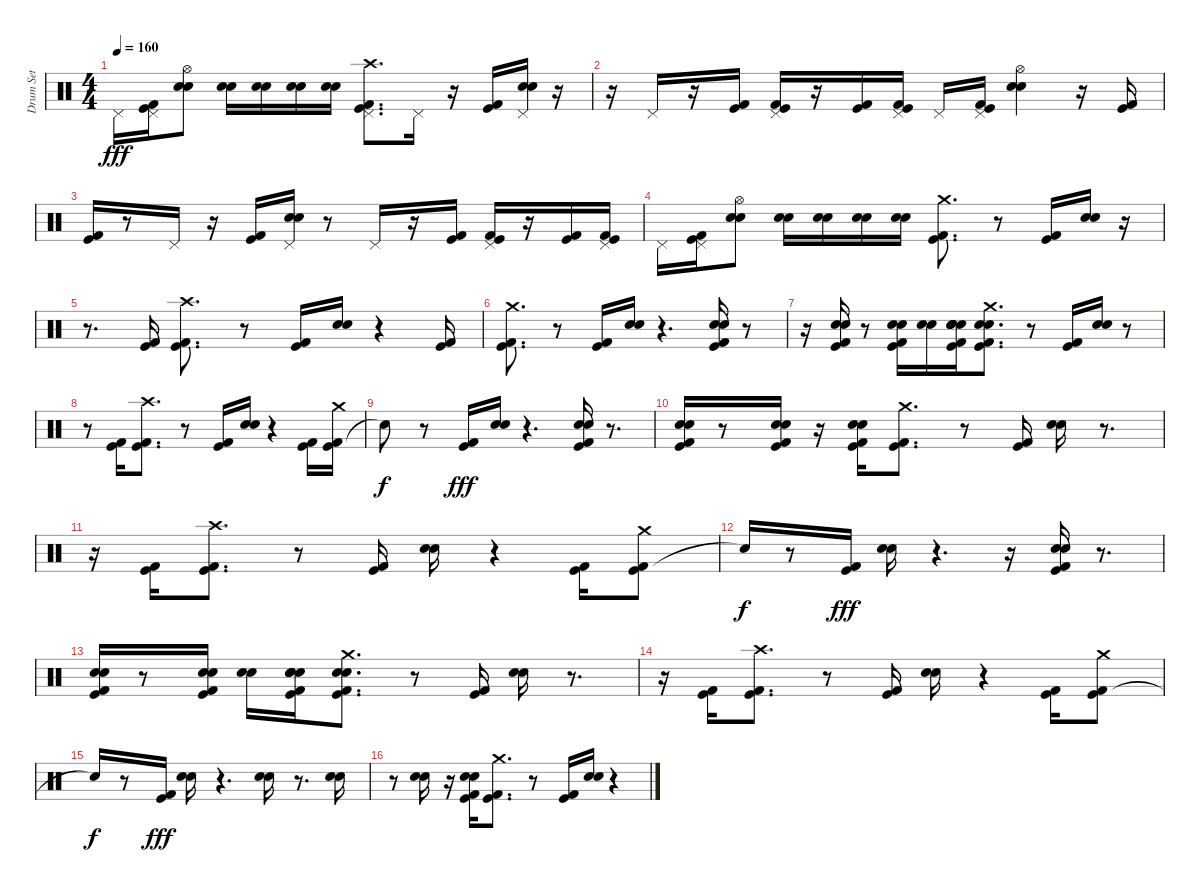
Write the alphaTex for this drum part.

\track ("Drum Set" "Drum Set") {instrument percussion}
\staff {score}
\articulation defaults
\ts (4 4)
\tempo 160
\clef neutral
\ks c "Pedal Hi-Hat (hit)".16{dy fff}
("Kick (hit) 2" "Kick (hit)" "Pedal Hi-Hat (hit)").16 ("Snare (hit) 2" "Electric Snare (hit)" "Hi-Hat (open)").8 ("Snare (hit) 2" "Electric Snare (hit)").16 ("Electric Snare (hit)" "Snare (hit) 2").16 ("Snare (hit) 2" "Electric Snare (hit)").16 ("Electric Snare (hit)" "Snare (hit) 2").16 ("Kick (hit)" "Kick (hit) 2" "Crash high (hit)" "Pedal Hi-Hat (hit)").8{d} "Pedal Hi-Hat (hit)".16 r.16 ("Kick (hit) 2" "Kick (hit)").16 ("Electric Snare (hit)" "Snare (hit) 2" "Pedal Hi-Hat (hit)").16 r.16 |
r.16 "Pedal Hi-Hat (hit)".16 r.16 ("Kick (hit) 2" "Kick (hit)").16 ("Kick (hit)" "Kick (hit) 2" "Pedal Hi-Hat (hit)").16 r.16 ("Kick (hit) 2" "Kick (hit)").16 ("Kick (hit)" "Kick (hit) 2" "Pedal Hi-Hat (hit)").16 "Pedal Hi-Hat (hit)".16 ("Kick (hit)" "Kick (hit) 2" "Pedal Hi-Hat (hit)").16 ("Snare (hit) 2" "Electric Snare (hit)" "Hi-Hat (open)").4 r.16 ("Kick (hit)" "Kick (hit) 2").16 |
("Kick (hit)" "Kick (hit) 2").16 r.8 "Pedal Hi-Hat (hit)".16 r.16 ("Kick (hit) 2" "Kick (hit)").16 ("Snare (hit) 2" "Electric Snare (hit)" "Pedal Hi-Hat (hit)").16 r.8 "Pedal Hi-Hat (hit)".16 r.16 ("Kick (hit)" "Kick (hit) 2").16 ("Kick (hit)" "Kick (hit) 2" "Pedal Hi-Hat (hit)").16 r.16 ("Kick (hit)" "Kick (hit) 2").16 ("Kick (hit)" "Kick (hit) 2" "Pedal Hi-Hat (hit)").16 |
"Pedal Hi-Hat (hit)".16 ("Kick (hit) 2" "Kick (hit)" "Pedal Hi-Hat (hit)").16 ("Snare (hit) 2" "Electric Snare (hit)" "Hi-Hat (open)").8 ("Snare (hit) 2" "Electric Snare (hit)").16 ("Electric Snare (hit)" "Snare (hit) 2").16 ("Snare (hit) 2" "Electric Snare (hit)").16 ("Electric Snare (hit)" "Snare (hit) 2").16 ("Kick (hit) 2" "Kick (hit)" "Crash medium (hit)").8{d} r.8 ("Kick (hit) 2" "Kick (hit)").16 ("Electric Snare (hit)" "Snare (hit) 2").16 r.16 |
r.8{d} ("Kick (hit) 2" "Kick (hit)").16 ("Kick (hit)" "Kick (hit) 2" "Crash high (hit)").8{d} r.8 ("Kick (hit)" "Kick (hit) 2").16 ("Snare (hit) 2" "Electric Snare (hit)").16 r.4 ("Kick (hit) 2" "Kick (hit)").16 |
("Kick (hit)" "Kick (hit) 2" "Crash medium (hit)").8{d} r.8 ("Kick (hit) 2" "Kick (hit)").16 ("Snare (hit) 2" "Electric Snare (hit)").16 r.4{d} ("Kick (hit) 2" "Kick (hit)" "Snare (hit) 2" "Electric Snare (hit)").16 r.8 |
r.16 ("Kick (hit)" "Kick (hit) 2" "Snare (hit) 2" "Electric Snare (hit)").16 r.8 ("Kick (hit)" "Kick (hit) 2" "Snare (hit) 2" "Electric Snare (hit)").16 ("Electric Snare (hit)" "Snare (hit) 2").16 ("Kick (hit)" "Kick (hit) 2" "Electric Snare (hit)" "Snare (hit) 2" "Snare (hit) 2" "Electric Snare (hit)").16 ("Snare (hit) 2" "Electric Snare (hit)" "Kick (hit) 2" "Kick (hit)" "Crash medium (hit)").8{d} r.8 ("Kick (hit) 2" "Kick (hit)").16 ("Electric Snare (hit)" "Snare (hit) 2").16 r.8 |
r.8 ("Kick (hit) 2" "Kick (hit)").16 ("Kick (hit)" "Kick (hit) 2" "Crash high (hit)").8{d} r.8 ("Kick (hit)" "Kick (hit) 2").16 ("Snare (hit) 2" "Electric Snare (hit)").16 r.4 ("Kick (hit) 2" "Kick (hit)").16 ("Kick (hit)" "Kick (hit) 2" "Crash medium (hit)").16 |
"Snare (hit)"{t}.8{dy f} r.8 ("Kick (hit) 2" "Kick (hit)").16{dy fff} ("Snare (hit) 2" "Electric Snare (hit)").16 r.4{d} ("Kick (hit) 2" "Kick (hit)" "Snare (hit) 2" "Electric Snare (hit)").16 r.8{d} |
("Kick (hit)" "Kick (hit) 2" "Snare (hit) 2" "Electric Snare (hit)").16 r.8 ("Kick (hit)" "Kick (hit) 2" "Snare (hit) 2" "Electric Snare (hit)").16 r.16 ("Kick (hit) 2" "Kick (hit)" "Electric Snare (hit)" "Snare (hit) 2").16 ("Kick (hit) 2" "Kick (hit)" "Crash medium (hit)").8{d} r.8 ("Kick (hit) 2" "Kick (hit)").16 ("Electric Snare (hit)" "Snare (hit) 2").16 r.8{d} |
r.16 ("Kick (hit) 2" "Kick (hit)").16 ("Kick (hit)" "Kick (hit) 2" "Crash high (hit)").8{d} r.8 ("Kick (hit)" "Kick (hit) 2").16 ("Snare (hit) 2" "Electric Snare (hit)").16 r.4 ("Kick (hit) 2" "Kick (hit)").16 ("Kick (hit)" "Kick (hit) 2" "Crash medium (hit)").8 |
"Snare (hit)"{t}.16{dy f} r.8 ("Kick (hit) 2" "Kick (hit)").16{dy fff} ("Snare (hit) 2" "Electric Snare (hit)").16 r.4{d} r.16 ("Kick (hit) 2" "Kick (hit)" "Snare (hit) 2" "Electric Snare (hit)").16 r.8{d} |
("Kick (hit)" "Kick (hit) 2" "Snare (hit) 2" "Electric Snare (hit)").16 r.8 ("Kick (hit)" "Kick (hit) 2" "Snare (hit) 2" "Electric Snare (hit)").16 ("Snare (hit) 2" "Electric Snare (hit)").16 ("Kick (hit) 2" "Snare (hit) 2" "Electric Snare (hit)" "Kick (hit)" "Snare (hit) 2" "Electric Snare (hit)").16 ("Snare (hit) 2" "Electric Snare (hit)" "Kick (hit) 2" "Kick (hit)" "Crash medium (hit)").8{d} r.8 ("Kick (hit) 2" "Kick (hit)").16 ("Electric Snare (hit)" "Snare (hit) 2").16 r.8{d} |
r.16 ("Kick (hit) 2" "Kick (hit)").16 ("Kick (hit)" "Kick (hit) 2" "Crash high (hit)").8{d} r.8 ("Kick (hit)" "Kick (hit) 2").16 ("Snare (hit) 2" "Electric Snare (hit)").16 r.4 ("Kick (hit) 2" "Kick (hit)").16 ("Kick (hit)" "Kick (hit) 2" "Crash medium (hit)").8 |
"Snare (hit)"{t}.16{dy f} r.8 ("Kick (hit) 2" "Kick (hit)").16{dy fff} ("Snare (hit) 2" "Electric Snare (hit)").16 r.4{d} ("Snare (hit) 2" "Electric Snare (hit)").16 r.8{d} ("Electric Snare (hit)" "Snare (hit) 2").16 |
r.8 ("Electric Snare (hit)" "Snare (hit) 2").16 r.16 ("Electric Snare (hit)" "Snare (hit) 2" "Kick (hit) 2" "Kick (hit)").16 ("Kick (hit) 2" "Kick (hit)" "Crash medium (hit)").8{d} r.8 ("Kick (hit) 2" "Kick (hit)").16 ("Electric Snare (hit)" "Snare (hit) 2").16 r.4
